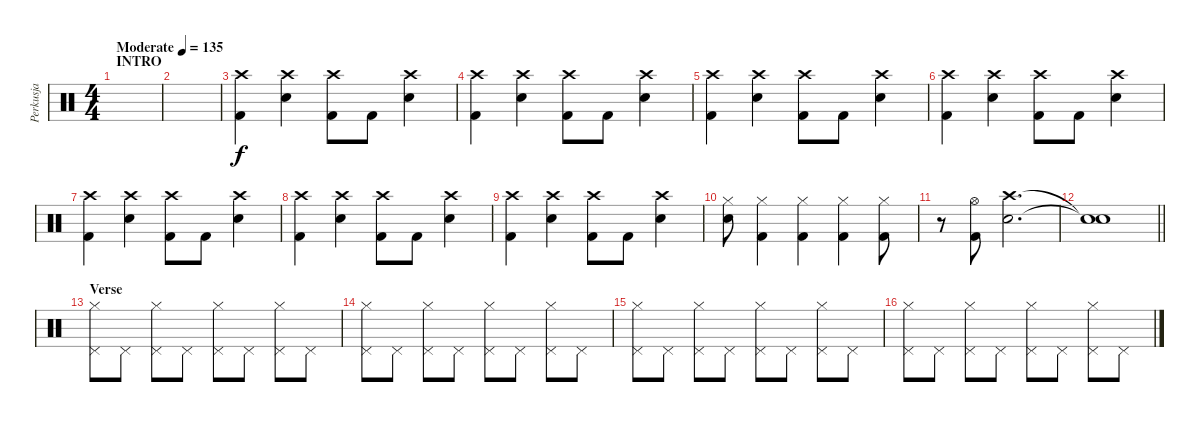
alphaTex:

\track ("Perkusja" "Perkusja") {instrument percussion}
\staff {score}
\articulation defaults
\ts (4 4)
\section ("" "INTRO")
\tempo (135 "Moderate")
\clef neutral
\ks c
|
|
("Crash high (hit)" "Kick (hit) 2").4 ("Crash high (hit)" "Snare (hit) 2").4 ("Crash high (hit)" "Kick (hit) 2").8 "Kick (hit) 2".8 ("Crash high (hit)" "Snare (hit) 2").4 |
("Crash high (hit)" "Kick (hit) 2").4 ("Crash high (hit)" "Snare (hit) 2").4 ("Crash high (hit)" "Kick (hit) 2").8 "Kick (hit) 2".8 ("Crash high (hit)" "Snare (hit) 2").4 |
("Crash high (hit)" "Kick (hit) 2").4 ("Crash high (hit)" "Snare (hit) 2").4 ("Crash high (hit)" "Kick (hit) 2").8 "Kick (hit) 2".8 ("Crash high (hit)" "Snare (hit) 2").4 |
("Crash high (hit)" "Kick (hit) 2").4 ("Crash high (hit)" "Snare (hit) 2").4 ("Crash high (hit)" "Kick (hit) 2").8 "Kick (hit) 2".8 ("Crash high (hit)" "Snare (hit) 2").4 |
("Crash high (hit)" "Kick (hit) 2").4 ("Crash high (hit)" "Snare (hit) 2").4 ("Crash high (hit)" "Kick (hit) 2").8 "Kick (hit) 2".8 ("Crash high (hit)" "Snare (hit) 2").4 |
("Crash high (hit)" "Kick (hit) 2").4 ("Crash high (hit)" "Snare (hit) 2").4 ("Crash high (hit)" "Kick (hit) 2").8 "Kick (hit) 2".8 ("Crash high (hit)" "Snare (hit) 2").4 |
("Crash high (hit)" "Kick (hit) 2").4 ("Crash high (hit)" "Snare (hit) 2").4 ("Crash high (hit)" "Kick (hit) 2").8 "Kick (hit) 2".8 ("Crash high (hit)" "Snare (hit) 2").4 |
("Hi-Hat (closed)" "Snare (hit) 2").8 ("Hi-Hat (closed)" "Kick (hit) 2").4 ("Hi-Hat (closed)" "Kick (hit) 2").4 ("Hi-Hat (closed)" "Kick (hit) 2").4 ("Hi-Hat (closed)" "Kick (hit) 2").8 |
r.8 ("Hi-Hat (open)" "Kick (hit) 2").8 ("Crash high (hit)" "Snare (hit) 2").2{d} |
\barLineRight lightlight
("Snare (hit)"{t} "Snare (hit)"{t}).1 |
\section ("" "Verse")
("Pedal Hi-Hat (hit)" "Hi-Hat (closed)").8 "Pedal Hi-Hat (hit)".8 ("Pedal Hi-Hat (hit)" "Hi-Hat (closed)").8 "Pedal Hi-Hat (hit)".8 ("Pedal Hi-Hat (hit)" "Hi-Hat (closed)").8 "Pedal Hi-Hat (hit)".8 ("Pedal Hi-Hat (hit)" "Hi-Hat (closed)").8 "Pedal Hi-Hat (hit)".8 |
("Pedal Hi-Hat (hit)" "Hi-Hat (closed)").8 "Pedal Hi-Hat (hit)".8 ("Pedal Hi-Hat (hit)" "Hi-Hat (closed)").8 "Pedal Hi-Hat (hit)".8 ("Pedal Hi-Hat (hit)" "Hi-Hat (closed)").8 "Pedal Hi-Hat (hit)".8 ("Pedal Hi-Hat (hit)" "Hi-Hat (closed)").8 "Pedal Hi-Hat (hit)".8 |
("Pedal Hi-Hat (hit)" "Hi-Hat (closed)").8 "Pedal Hi-Hat (hit)".8 ("Pedal Hi-Hat (hit)" "Hi-Hat (closed)").8 "Pedal Hi-Hat (hit)".8 ("Pedal Hi-Hat (hit)" "Hi-Hat (closed)").8 "Pedal Hi-Hat (hit)".8 ("Pedal Hi-Hat (hit)" "Hi-Hat (closed)").8 "Pedal Hi-Hat (hit)".8 |
("Pedal Hi-Hat (hit)" "Hi-Hat (closed)").8 "Pedal Hi-Hat (hit)".8 ("Pedal Hi-Hat (hit)" "Hi-Hat (closed)").8 "Pedal Hi-Hat (hit)".8 ("Pedal Hi-Hat (hit)" "Hi-Hat (closed)").8 "Pedal Hi-Hat (hit)".8 ("Pedal Hi-Hat (hit)" "Hi-Hat (closed)").8 "Pedal Hi-Hat (hit)".8
